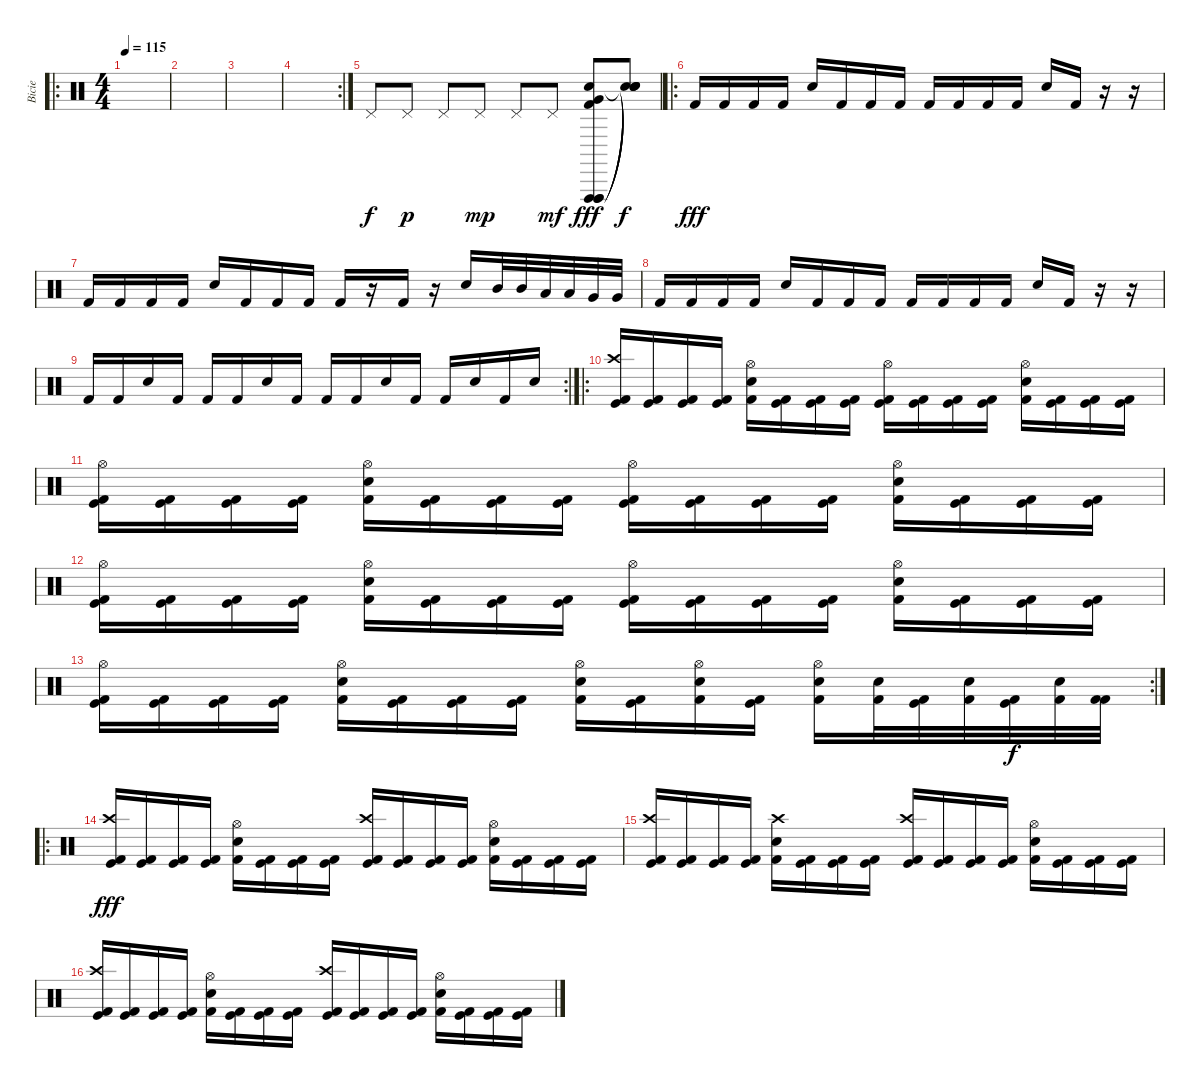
\track ("Bicie" "Bicie") {instrument percussion}
\staff {score}
\articulation defaults
\ro
\ts (4 4)
\tempo 115
\clef neutral
\ks c
|
|
|
\rc 2
|
"Pedal Hi-Hat (hit)".8 "Pedal Hi-Hat (hit)".8{dy p} "Pedal Hi-Hat (hit)".8 "Pedal Hi-Hat (hit)".8{dy mp} "Pedal Hi-Hat (hit)".8 "Pedal Hi-Hat (hit)".8{dy mf} ("Vibraslap (hit)" "Vibraslap (hit)" "Electric Snare (hit)" "Vibraslap (hit)" "Very Low Tom (hit)" "Kick (hit) 2").8{dy fff} ("Snare (hit)"{t} "Snare (hit)"{t} "Snare (hit)"{t} "Snare (hit)"{t}).8{dy f} |
\ro "Kick (hit) 2".16{dy fff} "Kick (hit) 2".16 "Kick (hit) 2".16 "Kick (hit) 2".16 "Electric Snare (hit)".16 "Kick (hit) 2".16 "Kick (hit) 2".16 "Kick (hit) 2".16 "Kick (hit) 2".16 "Kick (hit) 2".16 "Kick (hit) 2".16 "Kick (hit) 2".16 "Electric Snare (hit)".16 "Kick (hit) 2".16
r.16 r.16 |
"Kick (hit) 2".16 "Kick (hit) 2".16 "Kick (hit) 2".16 "Kick (hit) 2".16 "Electric Snare (hit)".16 "Kick (hit) 2".16 "Kick (hit) 2".16 "Kick (hit) 2".16 "Kick (hit) 2".16 r.16 "Kick (hit) 2".16 r.16 "Electric Snare (hit)".16 "Mid Tom (hit)".32 "Mid Tom (hit)".32 "Low Tom (hit)".32 "Low Tom (hit)".32 "Very Low Tom (hit)".32 "Very Low Tom (hit)".32 |
"Kick (hit) 2".16 "Kick (hit) 2".16 "Kick (hit) 2".16 "Kick (hit) 2".16 "Electric Snare (hit)".16 "Kick (hit) 2".16 "Kick (hit) 2".16 "Kick (hit) 2".16 "Kick (hit) 2".16 "Kick (hit) 2".16 "Kick (hit) 2".16 "Kick (hit) 2".16 "Electric Snare (hit)".16 "Kick (hit) 2".16 r.16 r.16 |
\rc 2 "Kick (hit) 2".16 "Kick (hit) 2".16 "Electric Snare (hit)".16 "Kick (hit) 2".16 "Kick (hit) 2".16 "Kick (hit) 2".16 "Electric Snare (hit)".16 "Kick (hit) 2".16 "Kick (hit) 2".16 "Kick (hit) 2".16 "Electric Snare (hit)".16 "Kick (hit) 2".16 "Kick (hit) 2".16 "Electric Snare (hit)".16 "Kick (hit) 2".16 "Electric Snare (hit)".16
|
\ro
("Crash high (hit)" "Kick (hit)" "Kick (hit) 2").16 ("Kick (hit)" "Kick (hit) 2").16 ("Kick (hit)" "Kick (hit) 2").16 ("Kick (hit)" "Kick (hit) 2").16 ("Hi-Hat (open)" "Electric Snare (hit)" "Kick (hit) 2").16 ("Kick (hit)" "Kick (hit) 2").16 ("Kick (hit)" "Kick (hit) 2").16 ("Kick (hit)" "Kick (hit) 2").16 ("Hi-Hat (open)" "Kick (hit)" "Kick (hit) 2").16 ("Kick (hit)" "Kick (hit) 2").16 ("Kick (hit)" "Kick (hit) 2").16 ("Kick (hit)" "Kick (hit) 2").16 ("Hi-Hat (open)" "Electric Snare (hit)" "Kick (hit) 2").16 ("Kick (hit)" "Kick (hit) 2").16 ("Kick (hit)" "Kick (hit) 2").16 ("Kick (hit)" "Kick (hit) 2").16 |
("Hi-Hat (open)" "Kick (hit)" "Kick (hit) 2").16 ("Kick (hit)" "Kick (hit) 2").16 ("Kick (hit)" "Kick (hit) 2").16 ("Kick (hit)" "Kick (hit) 2").16 ("Hi-Hat (open)" "Electric Snare (hit)" "Kick (hit) 2").16 ("Kick (hit)" "Kick (hit) 2").16 ("Kick (hit)" "Kick (hit) 2").16 ("Kick (hit)" "Kick (hit) 2").16 ("Hi-Hat (open)" "Kick (hit)" "Kick (hit) 2").16 ("Kick (hit)" "Kick (hit) 2").16 ("Kick (hit)" "Kick (hit) 2").16 ("Kick (hit)" "Kick (hit) 2").16 ("Hi-Hat (open)" "Electric Snare (hit)" "Kick (hit) 2").16 ("Kick (hit)" "Kick (hit) 2").16 ("Kick (hit)" "Kick (hit) 2").16 ("Kick (hit)" "Kick (hit) 2").16 |
("Hi-Hat (open)" "Kick (hit)" "Kick (hit) 2").16 ("Kick (hit)" "Kick (hit) 2").16 ("Kick (hit)" "Kick (hit) 2").16 ("Kick (hit)" "Kick (hit) 2").16 ("Hi-Hat (open)" "Electric Snare (hit)" "Kick (hit) 2").16 ("Kick (hit)" "Kick (hit) 2").16 ("Kick (hit)" "Kick (hit) 2").16 ("Kick (hit)" "Kick (hit) 2").16 ("Hi-Hat (open)" "Kick (hit)" "Kick (hit) 2").16 ("Kick (hit)" "Kick (hit) 2").16 ("Kick (hit)" "Kick (hit) 2").16 ("Kick (hit)" "Kick (hit) 2").16 ("Hi-Hat (open)" "Electric Snare (hit)" "Kick (hit) 2").16 ("Kick (hit)" "Kick (hit) 2").16 ("Kick (hit)" "Kick (hit) 2").16 ("Kick (hit)" "Kick (hit) 2").16 |
\rc 2
("Hi-Hat (open)" "Kick (hit)" "Kick (hit) 2").16 ("Kick (hit)" "Kick (hit) 2").16 ("Kick (hit)" "Kick (hit) 2").16 ("Kick (hit)" "Kick (hit) 2").16 ("Hi-Hat (open)" "Electric Snare (hit)" "Kick (hit) 2").16 ("Kick (hit)" "Kick (hit) 2").16 ("Kick (hit)" "Kick (hit) 2").16 ("Kick (hit)" "Kick (hit) 2").16 ("Hi-Hat (open)" "Electric Snare (hit)" "Kick (hit) 2").16 ("Kick (hit)" "Kick (hit) 2").16 ("Hi-Hat (open)" "Electric Snare (hit)" "Kick (hit) 2").16 ("Kick (hit)" "Kick (hit) 2").16 ("Hi-Hat (open)" "Electric Snare (hit)" "Kick (hit) 2").16 ("Electric Snare (hit)" "Kick (hit) 2").32 ("Kick (hit)" "Kick (hit) 2").32 ("Electric Snare (hit)" "Kick (hit) 2").32 ("Kick (hit)" "Kick (hit) 2").32{dy f} ("Electric Snare (hit)" "Kick (hit) 2").32 ("Kick (hit) 2" "Kick (hit) 2").32 |
\ro
("Crash high (hit)" "Kick (hit)" "Kick (hit) 2").16{dy fff} ("Kick (hit)" "Kick (hit) 2").16 ("Kick (hit)" "Kick (hit) 2").16 ("Kick (hit)" "Kick (hit) 2").16 ("Hi-Hat (open)" "Electric Snare (hit)" "Kick (hit) 2").16 ("Kick (hit)" "Kick (hit) 2").16 ("Kick (hit)" "Kick (hit) 2").16 ("Kick (hit)" "Kick (hit) 2").16 ("Crash high (hit)" "Kick (hit)" "Kick (hit) 2").16 ("Kick (hit)" "Kick (hit) 2").16 ("Kick (hit)" "Kick (hit) 2").16 ("Kick (hit)" "Kick (hit) 2").16 ("Hi-Hat (open)" "Electric Snare (hit)" "Kick (hit) 2").16 ("Kick (hit)" "Kick (hit) 2").16 ("Kick (hit)" "Kick (hit) 2").16 ("Kick (hit)" "Kick (hit) 2").16 |
("Crash high (hit)" "Kick (hit)" "Kick (hit) 2").16 ("Kick (hit)" "Kick (hit) 2").16 ("Kick (hit)" "Kick (hit) 2").16 ("Kick (hit)" "Kick (hit) 2").16 ("Crash high (hit)" "Electric Snare (hit)" "Kick (hit) 2").16 ("Kick (hit)" "Kick (hit) 2").16 ("Kick (hit)" "Kick (hit) 2").16 ("Kick (hit)" "Kick (hit) 2").16 ("Crash high (hit)" "Kick (hit)" "Kick (hit) 2").16 ("Kick (hit)" "Kick (hit) 2").16 ("Kick (hit)" "Kick (hit) 2").16 ("Kick (hit)" "Kick (hit) 2").16 ("Hi-Hat (open)" "Electric Snare (hit)" "Kick (hit) 2").16 ("Kick (hit)" "Kick (hit) 2").16 ("Kick (hit)" "Kick (hit) 2").16 ("Kick (hit)" "Kick (hit) 2").16 |
("Crash high (hit)" "Kick (hit)" "Kick (hit) 2").16 ("Kick (hit)" "Kick (hit) 2").16 ("Kick (hit)" "Kick (hit) 2").16 ("Kick (hit)" "Kick (hit) 2").16 ("Hi-Hat (open)" "Electric Snare (hit)" "Kick (hit) 2").16 ("Kick (hit)" "Kick (hit) 2").16 ("Kick (hit)" "Kick (hit) 2").16 ("Kick (hit)" "Kick (hit) 2").16 ("Crash high (hit)" "Kick (hit)" "Kick (hit) 2").16 ("Kick (hit)" "Kick (hit) 2").16 ("Kick (hit)" "Kick (hit) 2").16 ("Kick (hit)" "Kick (hit) 2").16 ("Hi-Hat (open)" "Electric Snare (hit)" "Kick (hit) 2").16 ("Kick (hit)" "Kick (hit) 2").16 ("Kick (hit)" "Kick (hit) 2").16 ("Kick (hit)" "Kick (hit) 2").16
